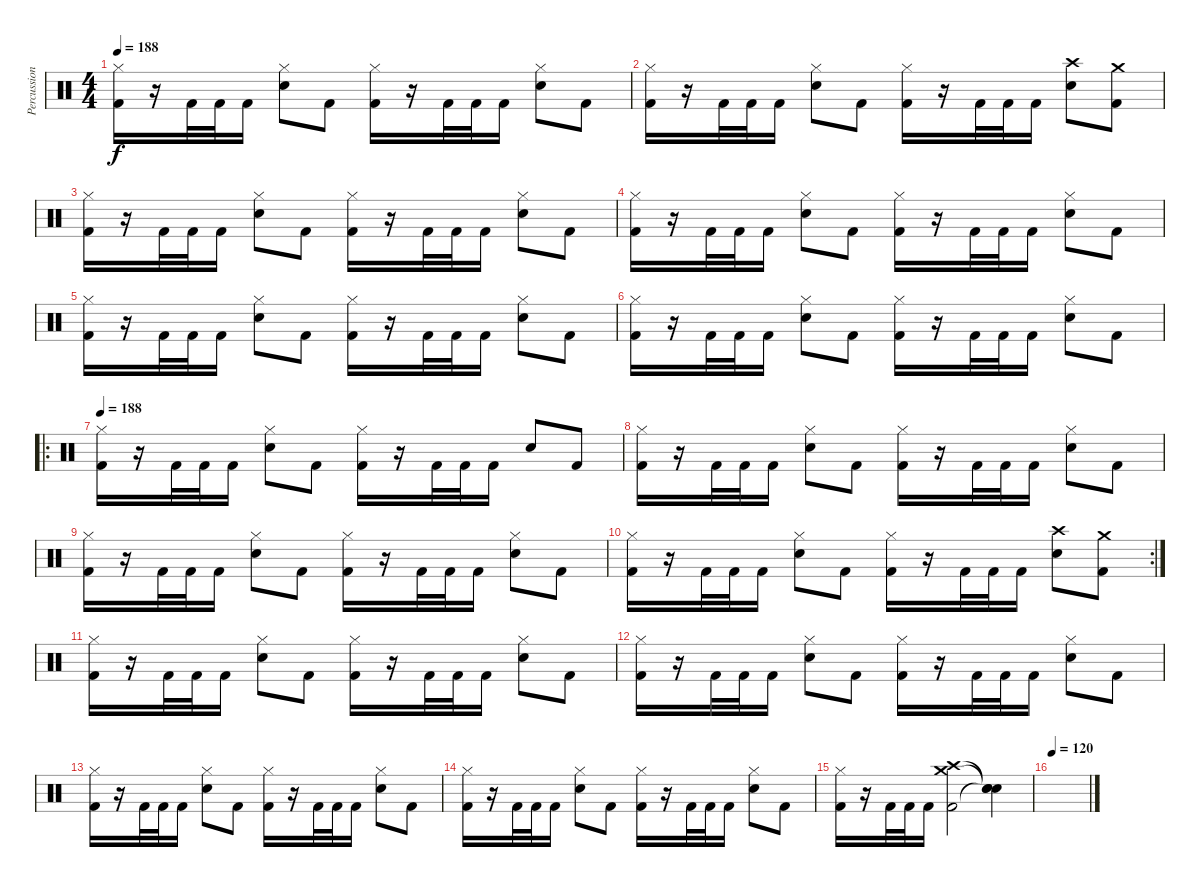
\track ("Percussion" "Percussion") {instrument percussion}
\staff {score}
\articulation defaults
\ts (4 4)
\tempo 188
\clef neutral
\ks c
("Hi-Hat (closed)" "Kick (hit) 2").16{dy f} r.16 "Kick (hit) 2".32 "Kick (hit) 2".32 "Kick (hit) 2".16 ("Hi-Hat (closed)" "Electric Snare (hit)").8 "Kick (hit) 2".8 ("Hi-Hat (closed)" "Kick (hit) 2").16 r.16 "Kick (hit) 2".32 "Kick (hit) 2".32 "Kick (hit) 2".16 ("Hi-Hat (closed)" "Electric Snare (hit)").8 "Kick (hit) 2".8 |
("Hi-Hat (closed)" "Kick (hit) 2").16 r.16 "Kick (hit) 2".32 "Kick (hit) 2".32 "Kick (hit) 2".16 ("Hi-Hat (closed)" "Electric Snare (hit)").8 "Kick (hit) 2".8 ("Hi-Hat (closed)" "Kick (hit) 2").16 r.16 "Kick (hit) 2".32 "Kick (hit) 2".32 "Kick (hit) 2".16 ("Crash high (hit)" "Electric Snare (hit)").8 ("Crash medium (hit)" "Kick (hit) 2").8 |
("Hi-Hat (closed)" "Kick (hit) 2").16 r.16 "Kick (hit) 2".32 "Kick (hit) 2".32 "Kick (hit) 2".16 ("Hi-Hat (closed)" "Electric Snare (hit)").8 "Kick (hit) 2".8 ("Hi-Hat (closed)" "Kick (hit) 2").16 r.16 "Kick (hit) 2".32 "Kick (hit) 2".32 "Kick (hit) 2".16 ("Hi-Hat (closed)" "Electric Snare (hit)").8 "Kick (hit) 2".8 |
("Hi-Hat (closed)" "Kick (hit) 2").16 r.16 "Kick (hit) 2".32 "Kick (hit) 2".32 "Kick (hit) 2".16 ("Hi-Hat (closed)" "Electric Snare (hit)").8 "Kick (hit) 2".8 ("Hi-Hat (closed)" "Kick (hit) 2").16 r.16 "Kick (hit) 2".32 "Kick (hit) 2".32 "Kick (hit) 2".16 ("Hi-Hat (closed)" "Electric Snare (hit)").8 "Kick (hit) 2".8 |
("Hi-Hat (closed)" "Kick (hit) 2").16 r.16 "Kick (hit) 2".32 "Kick (hit) 2".32 "Kick (hit) 2".16 ("Hi-Hat (closed)" "Electric Snare (hit)").8 "Kick (hit) 2".8 ("Hi-Hat (closed)" "Kick (hit) 2").16 r.16 "Kick (hit) 2".32 "Kick (hit) 2".32 "Kick (hit) 2".16 ("Hi-Hat (closed)" "Electric Snare (hit)").8 "Kick (hit) 2".8 |
("Hi-Hat (closed)" "Kick (hit) 2").16 r.16 "Kick (hit) 2".32 "Kick (hit) 2".32 "Kick (hit) 2".16 ("Hi-Hat (closed)" "Electric Snare (hit)").8 "Kick (hit) 2".8 ("Hi-Hat (closed)" "Kick (hit) 2").16 r.16 "Kick (hit) 2".32 "Kick (hit) 2".32 "Kick (hit) 2".16 ("Hi-Hat (closed)" "Electric Snare (hit)").8 "Kick (hit) 2".8 |
\ro
\tempo 188
("Hi-Hat (closed)" "Kick (hit) 2").16 r.16 "Kick (hit) 2".32 "Kick (hit) 2".32 "Kick (hit) 2".16 ("Hi-Hat (closed)" "Electric Snare (hit)").8 "Kick (hit) 2".8 ("Hi-Hat (closed)" "Kick (hit) 2").16 r.16 "Kick (hit) 2".32 "Kick (hit) 2".32 "Kick (hit) 2".16 "Electric Snare (hit)".8 "Kick (hit) 2".8 |
("Hi-Hat (closed)" "Kick (hit) 2").16 r.16 "Kick (hit) 2".32 "Kick (hit) 2".32 "Kick (hit) 2".16 ("Hi-Hat (closed)" "Electric Snare (hit)").8 "Kick (hit) 2".8 ("Hi-Hat (closed)" "Kick (hit) 2").16 r.16 "Kick (hit) 2".32 "Kick (hit) 2".32 "Kick (hit) 2".16 ("Hi-Hat (closed)" "Electric Snare (hit)").8 "Kick (hit) 2".8 |
("Hi-Hat (closed)" "Kick (hit) 2").16 r.16 "Kick (hit) 2".32 "Kick (hit) 2".32 "Kick (hit) 2".16 ("Hi-Hat (closed)" "Electric Snare (hit)").8 "Kick (hit) 2".8 ("Hi-Hat (closed)" "Kick (hit) 2").16 r.16 "Kick (hit) 2".32 "Kick (hit) 2".32 "Kick (hit) 2".16 ("Hi-Hat (closed)" "Electric Snare (hit)").8 "Kick (hit) 2".8 |
\rc 2
("Hi-Hat (closed)" "Kick (hit) 2").16 r.16 "Kick (hit) 2".32 "Kick (hit) 2".32 "Kick (hit) 2".16 ("Hi-Hat (closed)" "Electric Snare (hit)").8 "Kick (hit) 2".8 ("Hi-Hat (closed)" "Kick (hit) 2").16 r.16 "Kick (hit) 2".32 "Kick (hit) 2".32 "Kick (hit) 2".16 ("Crash high (hit)" "Electric Snare (hit)").8 ("Crash medium (hit)" "Kick (hit) 2").8 |
("Hi-Hat (closed)" "Kick (hit) 2").16 r.16 "Kick (hit) 2".32 "Kick (hit) 2".32 "Kick (hit) 2".16 ("Hi-Hat (closed)" "Electric Snare (hit)").8 "Kick (hit) 2".8 ("Hi-Hat (closed)" "Kick (hit) 2").16 r.16 "Kick (hit) 2".32 "Kick (hit) 2".32 "Kick (hit) 2".16 ("Hi-Hat (closed)" "Electric Snare (hit)").8 "Kick (hit) 2".8 |
("Hi-Hat (closed)" "Kick (hit) 2").16 r.16 "Kick (hit) 2".32 "Kick (hit) 2".32 "Kick (hit) 2".16 ("Hi-Hat (closed)" "Electric Snare (hit)").8 "Kick (hit) 2".8 ("Hi-Hat (closed)" "Kick (hit) 2").16 r.16 "Kick (hit) 2".32 "Kick (hit) 2".32 "Kick (hit) 2".16 ("Hi-Hat (closed)" "Electric Snare (hit)").8 "Kick (hit) 2".8 |
("Hi-Hat (closed)" "Kick (hit) 2").16 r.16 "Kick (hit) 2".32 "Kick (hit) 2".32 "Kick (hit) 2".16 ("Hi-Hat (closed)" "Electric Snare (hit)").8 "Kick (hit) 2".8 ("Hi-Hat (closed)" "Kick (hit) 2").16 r.16 "Kick (hit) 2".32 "Kick (hit) 2".32 "Kick (hit) 2".16 ("Hi-Hat (closed)" "Electric Snare (hit)").8 "Kick (hit) 2".8 |
("Hi-Hat (closed)" "Kick (hit) 2").16 r.16 "Kick (hit) 2".32 "Kick (hit) 2".32 "Kick (hit) 2".16 ("Hi-Hat (closed)" "Electric Snare (hit)").8 "Kick (hit) 2".8 ("Hi-Hat (closed)" "Kick (hit) 2").16 r.16 "Kick (hit) 2".32 "Kick (hit) 2".32 "Kick (hit) 2".16 ("Hi-Hat (closed)" "Electric Snare (hit)").8 "Kick (hit) 2".8 |
("Hi-Hat (closed)" "Kick (hit) 2").16 r.16 "Kick (hit) 2".32 "Kick (hit) 2".32 "Kick (hit) 2".16 ("Crash high (hit)" "Crash medium (hit)" "Kick (hit) 2").2 ("Snare (hit)"{t} "Snare (hit)"{t} "Snare (hit)"{t}).4 |
\tempo 120
